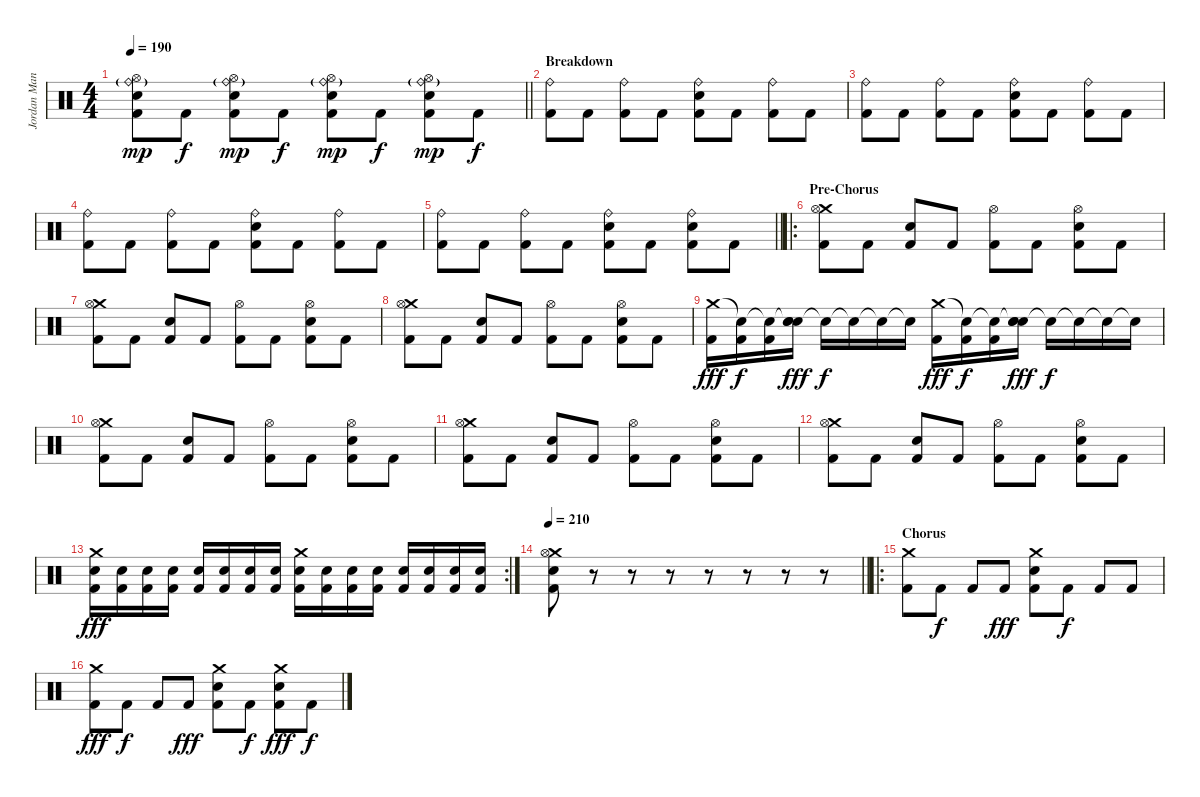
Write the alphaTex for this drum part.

\track ("Jordan Mancino" "Jordan Man") {instrument percussion}
\staff {score}
\articulation defaults
\ts (4 4)
\tempo 190
\clef neutral
\barLineRight lightlight
\ks c
("Hi-Hat (open)" "Ride (bell)"{g} "Snare (hit) 2" "Kick (hit) 2").8{dy mp} "Kick (hit) 2".8{dy f} ("Hi-Hat (open)" "Ride (bell)"{g} "Snare (hit) 2" "Kick (hit) 2").8{dy mp} "Kick (hit) 2".8{dy f} ("Hi-Hat (open)" "Ride (bell)"{g} "Snare (hit) 2" "Kick (hit) 2").8{dy mp} "Kick (hit) 2".8{dy f} ("Hi-Hat (open)" "Ride (bell)"{g} "Snare (hit) 2" "Kick (hit) 2").8{dy mp} "Kick (hit) 2".8{dy f} |
\section ("" "Breakdown")
("Ride (bell)" "Kick (hit) 2").8 "Kick (hit) 2".8 ("Ride (bell)" "Kick (hit) 2").8 "Kick (hit) 2".8 ("Ride (bell)" "Snare (hit) 2" "Kick (hit) 2").8 "Kick (hit) 2".8 ("Ride (bell)" "Kick (hit) 2").8 "Kick (hit) 2".8 |
("Ride (bell)" "Kick (hit) 2").8 "Kick (hit) 2".8 ("Ride (bell)" "Kick (hit) 2").8 "Kick (hit) 2".8 ("Ride (bell)" "Snare (hit) 2" "Kick (hit) 2").8 "Kick (hit) 2".8 ("Ride (bell)" "Kick (hit) 2").8 "Kick (hit) 2".8 |
("Ride (bell)" "Kick (hit) 2").8 "Kick (hit) 2".8 ("Ride (bell)" "Kick (hit) 2").8 "Kick (hit) 2".8 ("Ride (bell)" "Snare (hit) 2" "Kick (hit) 2").8 "Kick (hit) 2".8 ("Ride (bell)" "Kick (hit) 2").8 "Kick (hit) 2".8 |
\barLineRight lightlight
("Ride (bell)" "Kick (hit) 2").8 "Kick (hit) 2".8 ("Ride (bell)" "Kick (hit) 2").8 "Kick (hit) 2".8 ("Ride (bell)" "Snare (hit) 2" "Kick (hit) 2").8 "Kick (hit) 2".8 ("Ride (bell)" "Snare (hit) 2" "Kick (hit) 2").8 "Kick (hit) 2".8 |
\ro
\section ("" "Pre-Chorus")
("Crash medium (hit)" "Kick (hit) 2" "Hi-Hat (open)").8 "Kick (hit) 2".8 ("Kick (hit) 2" "Snare (hit) 2").8 "Kick (hit) 2".8 ("Kick (hit) 2" "Hi-Hat (open)").8 "Kick (hit) 2".8 ("Kick (hit) 2" "Snare (hit) 2" "Hi-Hat (open)").8 "Kick (hit) 2".8 |
("Crash medium (hit)" "Kick (hit) 2" "Hi-Hat (open)").8 "Kick (hit) 2".8 ("Kick (hit) 2" "Snare (hit) 2").8 "Kick (hit) 2".8 ("Kick (hit) 2" "Hi-Hat (open)").8 "Kick (hit) 2".8 ("Kick (hit) 2" "Snare (hit) 2" "Hi-Hat (open)").8 "Kick (hit) 2".8 |
("Crash medium (hit)" "Kick (hit) 2" "Hi-Hat (open)").8 "Kick (hit) 2".8 ("Kick (hit) 2" "Snare (hit) 2").8 "Kick (hit) 2".8 ("Kick (hit) 2" "Hi-Hat (open)").8 "Kick (hit) 2".8 ("Kick (hit) 2" "Snare (hit) 2" "Hi-Hat (open)").8 "Kick (hit) 2".8 |
("Crash medium (hit)" "Kick (hit) 2").16{dy fff} ("Snare (hit)"{t} "Kick (hit) 2").16{dy f} ("Snare (hit)"{t} "Kick (hit) 2").16 ("Snare (hit)"{t} "Snare (hit) 2" "Snare (hit) 2").16{dy fff} "Snare (hit)"{t}.16{dy f} "Snare (hit)"{t}.16 "Snare (hit)"{t}.16 "Snare (hit)"{t}.16 ("Crash medium (hit)" "Kick (hit) 2").16{dy fff} ("Snare (hit)"{t} "Kick (hit) 2").16{dy f} ("Snare (hit)"{t} "Kick (hit) 2").16 ("Snare (hit)"{t} "Snare (hit) 2" "Snare (hit) 2").16{dy fff} "Snare (hit)"{t}.16{dy f} "Snare (hit)"{t}.16 "Snare (hit)"{t}.16 "Snare (hit)"{t}.16 |
("Crash medium (hit)" "Kick (hit) 2" "Hi-Hat (open)").8 "Kick (hit) 2".8 ("Kick (hit) 2" "Snare (hit) 2").8 "Kick (hit) 2".8 ("Kick (hit) 2" "Hi-Hat (open)").8 "Kick (hit) 2".8 ("Kick (hit) 2" "Snare (hit) 2" "Hi-Hat (open)").8 "Kick (hit) 2".8 |
("Crash medium (hit)" "Kick (hit) 2" "Hi-Hat (open)").8 "Kick (hit) 2".8 ("Kick (hit) 2" "Snare (hit) 2").8 "Kick (hit) 2".8 ("Kick (hit) 2" "Hi-Hat (open)").8 "Kick (hit) 2".8 ("Kick (hit) 2" "Snare (hit) 2" "Hi-Hat (open)").8 "Kick (hit) 2".8 |
("Crash medium (hit)" "Kick (hit) 2" "Hi-Hat (open)").8 "Kick (hit) 2".8 ("Kick (hit) 2" "Snare (hit) 2").8 "Kick (hit) 2".8 ("Kick (hit) 2" "Hi-Hat (open)").8 "Kick (hit) 2".8 ("Kick (hit) 2" "Snare (hit) 2" "Hi-Hat (open)").8 "Kick (hit) 2".8 |
\rc 2
("Crash medium (hit)" "Snare (hit) 2" "Kick (hit) 2").16{dy fff} ("Snare (hit) 2" "Kick (hit) 2").16 ("Snare (hit) 2" "Kick (hit) 2").16 ("Snare (hit) 2" "Kick (hit) 2").16 ("Snare (hit) 2" "Kick (hit) 2").16 ("Snare (hit) 2" "Kick (hit) 2").16 ("Snare (hit) 2" "Kick (hit) 2").16 ("Snare (hit) 2" "Kick (hit) 2").16 ("Crash medium (hit)" "Snare (hit) 2" "Kick (hit) 2").16 ("Snare (hit) 2" "Kick (hit) 2").16 ("Snare (hit) 2" "Kick (hit) 2").16 ("Snare (hit) 2" "Kick (hit) 2").16 ("Snare (hit) 2" "Kick (hit) 2").16 ("Snare (hit) 2" "Kick (hit) 2").16 ("Snare (hit) 2" "Kick (hit) 2").16 ("Snare (hit) 2" "Kick (hit) 2").16 |
\tempo 210
\barLineRight lightlight
("Crash medium (hit)" "Kick (hit) 2" "Snare (hit) 2" "Hi-Hat (open)").8 r.8 r.8 r.8 r.8 r.8 r.8 r.8 |
\ro
\section ("" "Chorus")
("Crash medium (hit)" "Kick (hit) 2").8 "Kick (hit) 2".8{dy f} "Kick (hit) 2".8 "Kick (hit) 2".8{dy fff} ("Crash medium (hit)" "Snare (hit) 2" "Kick (hit) 2").8 "Kick (hit) 2".8{dy f} "Kick (hit) 2".8 "Kick (hit) 2".8 |
("Crash medium (hit)" "Kick (hit) 2").8{dy fff} "Kick (hit) 2".8{dy f} "Kick (hit) 2".8 "Kick (hit) 2".8{dy fff} ("Crash medium (hit)" "Snare (hit) 2" "Kick (hit) 2").8 "Kick (hit) 2".8{dy f} ("Crash medium (hit)" "Snare (hit) 2" "Kick (hit) 2").8{dy fff} "Kick (hit) 2".8{dy f}
